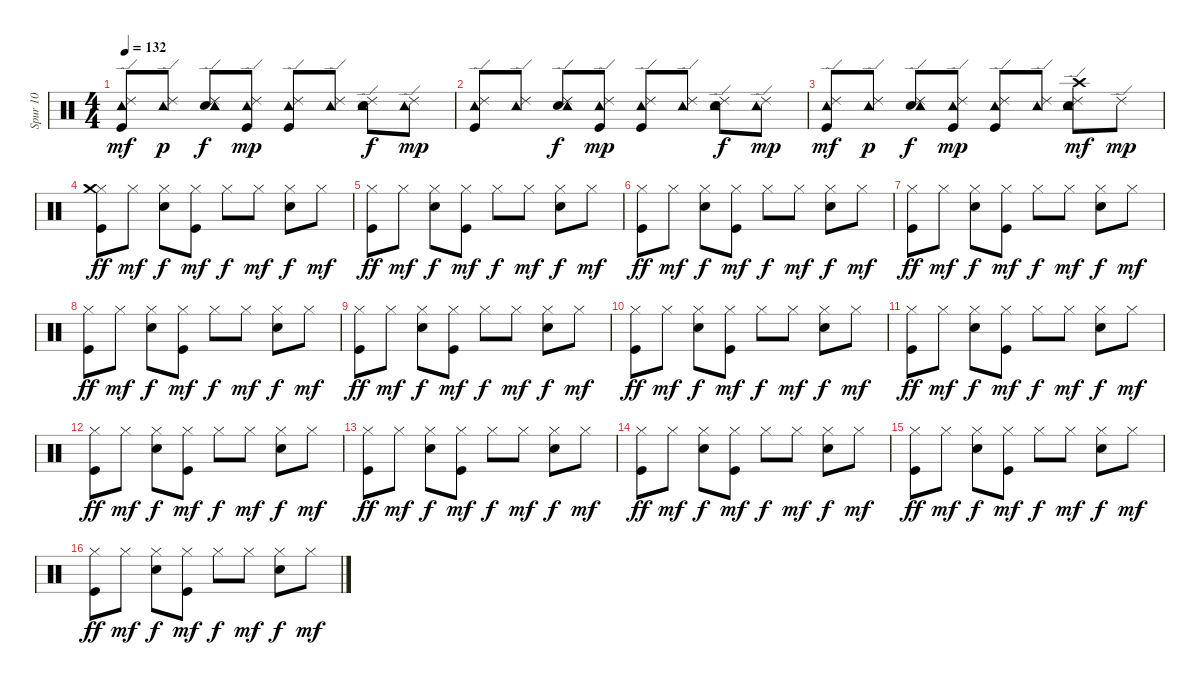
\track ("Spur 10" "Spur 10") {instrument percussion}
\staff {score}
\articulation defaults
\ts (4 4)
\tempo 132
\clef neutral
\ks c
("Kick (hit)" "Ride (edge) 2" "Tambourine (hit)").8{dy mf} ("Ride (edge) 2" "Tambourine (hit)").8{dy p} ("Electric Snare (hit)" "Ride (edge) 2" "Tambourine (hit)").8{dy f} ("Kick (hit)" "Ride (edge) 2" "Tambourine (hit)").8{dy mp} ("Kick (hit)" "Ride (edge) 2" "Tambourine (hit)").8 ("Ride (edge) 2" "Tambourine (hit)").8 ("Electric Snare (hit)" "Ride (edge) 2" "Tambourine (hit)").8{dy f} ("Ride (edge) 2" "Tambourine (hit)").8{dy mp} |
("Kick (hit)" "Ride (edge) 2" "Tambourine (hit)").8 ("Ride (edge) 2" "Tambourine (hit)").8 ("Electric Snare (hit)" "Ride (edge) 2" "Tambourine (hit)").8{dy f} ("Kick (hit)" "Ride (edge) 2" "Tambourine (hit)").8{dy mp} ("Kick (hit)" "Ride (edge) 2" "Tambourine (hit)").8 ("Ride (edge) 2" "Tambourine (hit)").8 ("Electric Snare (hit)" "Ride (edge) 2" "Tambourine (hit)").8{dy f} ("Ride (edge) 2" "Tambourine (hit)").8{dy mp} |
("Kick (hit)" "Ride (edge) 2" "Tambourine (hit)").8{dy mf} ("Ride (edge) 2" "Tambourine (hit)").8{dy p} ("Electric Snare (hit)" "Ride (edge) 2" "Tambourine (hit)").8{dy f} ("Kick (hit)" "Ride (edge) 2" "Tambourine (hit)").8{dy mp} ("Kick (hit)" "Ride (edge) 2" "Tambourine (hit)").8 ("Ride (edge) 2" "Tambourine (hit)").8 ("Electric Snare (hit)" "Ride (edge) 2" "Crash high (hit)" "Tambourine (hit)").8{dy mf} "Ride (edge) 2".8{dy mp} |
("Kick (hit)" "Hi-Hat (closed)" "Crash medium (hit)").8{dy ff} "Hi-Hat (closed)".8{dy mf} ("Hi-Hat (closed)" "Electric Snare (hit)").8{dy f} ("Kick (hit)" "Hi-Hat (closed)").8{dy mf} "Hi-Hat (closed)".8{dy f} "Hi-Hat (closed)".8{dy mf} ("Hi-Hat (closed)" "Electric Snare (hit)").8{dy f} "Hi-Hat (closed)".8{dy mf} |
("Kick (hit)" "Hi-Hat (closed)").8{dy ff} "Hi-Hat (closed)".8{dy mf} ("Electric Snare (hit)" "Hi-Hat (closed)").8{dy f} ("Hi-Hat (closed)" "Kick (hit)").8{dy mf} "Hi-Hat (closed)".8{dy f} "Hi-Hat (closed)".8{dy mf} ("Hi-Hat (closed)" "Electric Snare (hit)").8{dy f} "Hi-Hat (closed)".8{dy mf} |
("Kick (hit)" "Hi-Hat (closed)").8{dy ff} "Hi-Hat (closed)".8{dy mf} ("Hi-Hat (closed)" "Electric Snare (hit)").8{dy f} ("Kick (hit)" "Hi-Hat (closed)").8{dy mf} "Hi-Hat (closed)".8{dy f} "Hi-Hat (closed)".8{dy mf} ("Electric Snare (hit)" "Hi-Hat (closed)").8{dy f} "Hi-Hat (closed)".8{dy mf} |
("Kick (hit)" "Hi-Hat (closed)").8{dy ff} "Hi-Hat (closed)".8{dy mf} ("Hi-Hat (closed)" "Electric Snare (hit)").8{dy f} ("Kick (hit)" "Hi-Hat (closed)").8{dy mf} "Hi-Hat (closed)".8{dy f} "Hi-Hat (closed)".8{dy mf} ("Hi-Hat (closed)" "Electric Snare (hit)").8{dy f} "Hi-Hat (closed)".8{dy mf} |
("Kick (hit)" "Hi-Hat (closed)").8{dy ff} "Hi-Hat (closed)".8{dy mf} ("Hi-Hat (closed)" "Electric Snare (hit)").8{dy f} ("Hi-Hat (closed)" "Kick (hit)").8{dy mf} "Hi-Hat (closed)".8{dy f} "Hi-Hat (closed)".8{dy mf} ("Electric Snare (hit)" "Hi-Hat (closed)").8{dy f} "Hi-Hat (closed)".8{dy mf} |
("Kick (hit)" "Hi-Hat (closed)").8{dy ff} "Hi-Hat (closed)".8{dy mf} ("Hi-Hat (closed)" "Electric Snare (hit)").8{dy f} ("Kick (hit)" "Hi-Hat (closed)").8{dy mf} "Hi-Hat (closed)".8{dy f} "Hi-Hat (closed)".8{dy mf} ("Electric Snare (hit)" "Hi-Hat (closed)").8{dy f} "Hi-Hat (closed)".8{dy mf} |
("Hi-Hat (closed)" "Kick (hit)").8{dy ff} "Hi-Hat (closed)".8{dy mf} ("Hi-Hat (closed)" "Electric Snare (hit)").8{dy f} ("Hi-Hat (closed)" "Kick (hit)").8{dy mf} "Hi-Hat (closed)".8{dy f} "Hi-Hat (closed)".8{dy mf} ("Electric Snare (hit)" "Hi-Hat (closed)").8{dy f} "Hi-Hat (closed)".8{dy mf} |
("Hi-Hat (closed)" "Kick (hit)").8{dy ff} "Hi-Hat (closed)".8{dy mf} ("Electric Snare (hit)" "Hi-Hat (closed)").8{dy f} ("Kick (hit)" "Hi-Hat (closed)").8{dy mf} "Hi-Hat (closed)".8{dy f} "Hi-Hat (closed)".8{dy mf} ("Hi-Hat (closed)" "Electric Snare (hit)").8{dy f} "Hi-Hat (closed)".8{dy mf} |
("Kick (hit)" "Hi-Hat (closed)").8{dy ff} "Hi-Hat (closed)".8{dy mf} ("Hi-Hat (closed)" "Electric Snare (hit)").8{dy f} ("Hi-Hat (closed)" "Kick (hit)").8{dy mf} "Hi-Hat (closed)".8{dy f} "Hi-Hat (closed)".8{dy mf} ("Hi-Hat (closed)" "Electric Snare (hit)").8{dy f} "Hi-Hat (closed)".8{dy mf} |
("Kick (hit)" "Hi-Hat (closed)").8{dy ff} "Hi-Hat (closed)".8{dy mf} ("Hi-Hat (closed)" "Electric Snare (hit)").8{dy f} ("Kick (hit)" "Hi-Hat (closed)").8{dy mf} "Hi-Hat (closed)".8{dy f} "Hi-Hat (closed)".8{dy mf} ("Electric Snare (hit)" "Hi-Hat (closed)").8{dy f} "Hi-Hat (closed)".8{dy mf} |
("Hi-Hat (closed)" "Kick (hit)").8{dy ff} "Hi-Hat (closed)".8{dy mf} ("Hi-Hat (closed)" "Electric Snare (hit)").8{dy f} ("Hi-Hat (closed)" "Kick (hit)").8{dy mf} "Hi-Hat (closed)".8{dy f} "Hi-Hat (closed)".8{dy mf} ("Hi-Hat (closed)" "Electric Snare (hit)").8{dy f} "Hi-Hat (closed)".8{dy mf} |
("Kick (hit)" "Hi-Hat (closed)").8{dy ff} "Hi-Hat (closed)".8{dy mf} ("Electric Snare (hit)" "Hi-Hat (closed)").8{dy f} ("Kick (hit)" "Hi-Hat (closed)").8{dy mf} "Hi-Hat (closed)".8{dy f} "Hi-Hat (closed)".8{dy mf} ("Hi-Hat (closed)" "Electric Snare (hit)").8{dy f} "Hi-Hat (closed)".8{dy mf} |
("Kick (hit)" "Hi-Hat (closed)").8{dy ff} "Hi-Hat (closed)".8{dy mf} ("Hi-Hat (closed)" "Electric Snare (hit)").8{dy f} ("Hi-Hat (closed)" "Kick (hit)").8{dy mf} "Hi-Hat (closed)".8{dy f} "Hi-Hat (closed)".8{dy mf} ("Electric Snare (hit)" "Hi-Hat (closed)").8{dy f} "Hi-Hat (closed)".8{dy mf}
